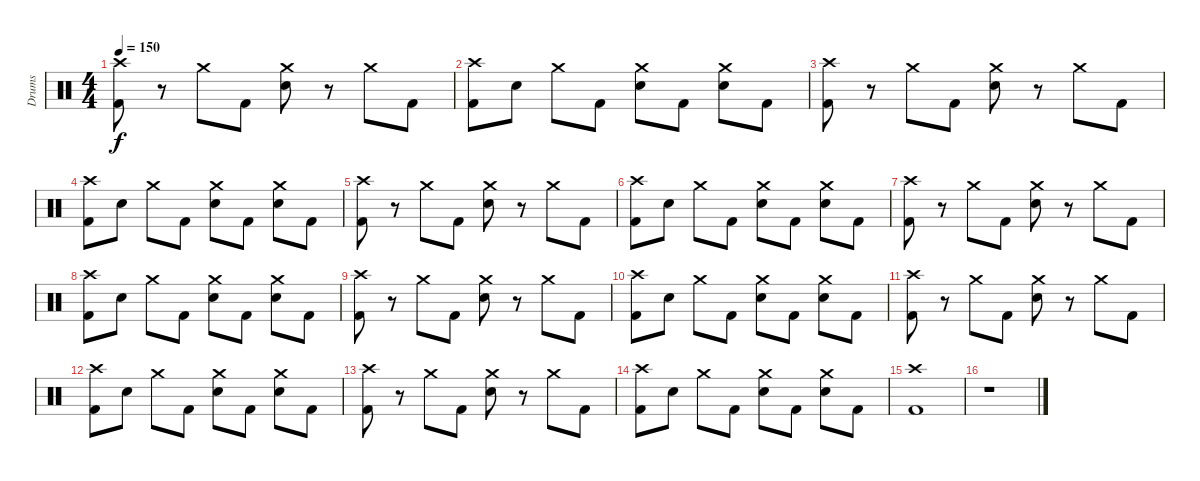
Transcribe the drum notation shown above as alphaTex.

\track ("Drums" "Drums") {instrument percussion}
\staff {score}
\articulation defaults
\ts (4 4)
\tempo 150
\clef neutral
\ks c
("Crash high (hit)" "Kick (hit) 2").8{dy f} r.8 "Crash medium (hit)".8 "Kick (hit) 2".8 ("Crash medium (hit)" "Electric Snare (hit)").8 r.8 "Crash medium (hit)".8 "Kick (hit) 2".8 |
("Crash high (hit)" "Kick (hit) 2").8 "Electric Snare (hit)".8 "Crash medium (hit)".8 "Kick (hit) 2".8 ("Crash medium (hit)" "Electric Snare (hit)").8 "Kick (hit) 2".8 ("Crash medium (hit)" "Electric Snare (hit)").8 "Kick (hit) 2".8 |
("Crash high (hit)" "Kick (hit) 2").8 r.8 "Crash medium (hit)".8 "Kick (hit) 2".8 ("Crash medium (hit)" "Electric Snare (hit)").8 r.8 "Crash medium (hit)".8 "Kick (hit) 2".8 |
("Crash high (hit)" "Kick (hit) 2").8 "Electric Snare (hit)".8 "Crash medium (hit)".8 "Kick (hit) 2".8 ("Crash medium (hit)" "Electric Snare (hit)").8 "Kick (hit) 2".8 ("Crash medium (hit)" "Electric Snare (hit)").8 "Kick (hit) 2".8 |
("Crash high (hit)" "Kick (hit) 2").8 r.8 "Crash medium (hit)".8 "Kick (hit) 2".8 ("Crash medium (hit)" "Electric Snare (hit)").8 r.8 "Crash medium (hit)".8 "Kick (hit) 2".8 |
("Crash high (hit)" "Kick (hit) 2").8 "Electric Snare (hit)".8 "Crash medium (hit)".8 "Kick (hit) 2".8 ("Crash medium (hit)" "Electric Snare (hit)").8 "Kick (hit) 2".8 ("Crash medium (hit)" "Electric Snare (hit)").8 "Kick (hit) 2".8 |
("Crash high (hit)" "Kick (hit) 2").8 r.8 "Crash medium (hit)".8 "Kick (hit) 2".8 ("Crash medium (hit)" "Electric Snare (hit)").8 r.8 "Crash medium (hit)".8 "Kick (hit) 2".8 |
("Crash high (hit)" "Kick (hit) 2").8 "Electric Snare (hit)".8 "Crash medium (hit)".8 "Kick (hit) 2".8 ("Crash medium (hit)" "Electric Snare (hit)").8 "Kick (hit) 2".8 ("Crash medium (hit)" "Electric Snare (hit)").8 "Kick (hit) 2".8 |
("Crash high (hit)" "Kick (hit) 2").8 r.8 "Crash medium (hit)".8 "Kick (hit) 2".8 ("Crash medium (hit)" "Electric Snare (hit)").8 r.8 "Crash medium (hit)".8 "Kick (hit) 2".8 |
("Crash high (hit)" "Kick (hit) 2").8 "Electric Snare (hit)".8 "Crash medium (hit)".8 "Kick (hit) 2".8 ("Crash medium (hit)" "Electric Snare (hit)").8 "Kick (hit) 2".8 ("Crash medium (hit)" "Electric Snare (hit)").8 "Kick (hit) 2".8 |
("Crash high (hit)" "Kick (hit) 2").8 r.8 "Crash medium (hit)".8 "Kick (hit) 2".8 ("Crash medium (hit)" "Electric Snare (hit)").8 r.8 "Crash medium (hit)".8 "Kick (hit) 2".8 |
("Crash high (hit)" "Kick (hit) 2").8 "Electric Snare (hit)".8 "Crash medium (hit)".8 "Kick (hit) 2".8 ("Crash medium (hit)" "Electric Snare (hit)").8 "Kick (hit) 2".8 ("Crash medium (hit)" "Electric Snare (hit)").8 "Kick (hit) 2".8 |
("Crash high (hit)" "Kick (hit) 2").8 r.8 "Crash medium (hit)".8 "Kick (hit) 2".8 ("Crash medium (hit)" "Electric Snare (hit)").8 r.8 "Crash medium (hit)".8 "Kick (hit) 2".8 |
("Crash high (hit)" "Kick (hit) 2").8 "Electric Snare (hit)".8 "Crash medium (hit)".8 "Kick (hit) 2".8 ("Crash medium (hit)" "Electric Snare (hit)").8 "Kick (hit) 2".8 ("Crash medium (hit)" "Electric Snare (hit)").8 "Kick (hit) 2".8 |
("Crash high (hit)" "Kick (hit) 2").1 |
r.1
